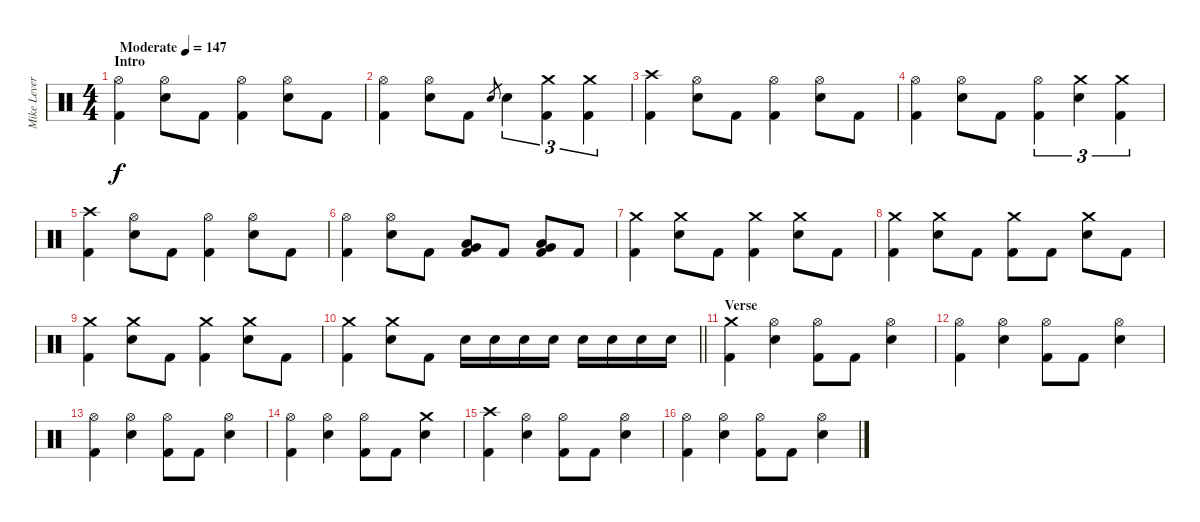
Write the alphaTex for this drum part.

\track ("Mike Leverence - Drums" "Mike Lever") {instrument percussion}
\staff {score}
\articulation defaults
\ts (4 4)
\section ("" "Intro")
\tempo (147 "Moderate")
\clef neutral
\ks c
("Hi-Hat (open)" "Kick (hit) 2").4{dy f} ("Hi-Hat (open)" "Electric Snare (hit)").8 "Kick (hit) 2".8 ("Hi-Hat (open)" "Kick (hit) 2").4 ("Hi-Hat (open)" "Electric Snare (hit)").8 "Kick (hit) 2".8 |
("Hi-Hat (open)" "Kick (hit) 2").4 ("Hi-Hat (open)" "Electric Snare (hit)").8 "Kick (hit) 2".8 "Electric Snare (hit)".8{gr} "Electric Snare (hit)".4{tu (3 2)} ("Crash medium (hit)" "Kick (hit) 2").4{tu (3 2)} ("Crash medium (hit)" "Kick (hit) 2").4{tu (3 2)} |
("Crash high (hit)" "Kick (hit) 2").4 ("Hi-Hat (open)" "Electric Snare (hit)").8 "Kick (hit) 2".8 ("Hi-Hat (open)" "Kick (hit) 2").4 ("Hi-Hat (open)" "Electric Snare (hit)").8 "Kick (hit) 2".8 |
("Hi-Hat (open)" "Kick (hit) 2").4 ("Hi-Hat (open)" "Electric Snare (hit)").8 "Kick (hit) 2".8 ("Hi-Hat (open)" "Kick (hit) 2").4{tu (3 2)} ("Crash medium (hit)" "Electric Snare (hit)").4{tu (3 2)} ("Crash medium (hit)" "Kick (hit) 2").4{tu (3 2)} |
("Crash high (hit)" "Kick (hit) 2").4 ("Hi-Hat (open)" "Electric Snare (hit)").8 "Kick (hit) 2".8 ("Hi-Hat (open)" "Kick (hit) 2").4 ("Hi-Hat (open)" "Electric Snare (hit)").8 "Kick (hit) 2".8 |
("Hi-Hat (open)" "Kick (hit) 2").4 ("Hi-Hat (open)" "Electric Snare (hit)").8 "Kick (hit) 2".8 ("Very Low Tom (hit)" "Low Tom (hit)" "Kick (hit) 2").8 "Kick (hit) 2".8 ("Very Low Tom (hit)" "Low Tom (hit)" "Kick (hit) 2").8 "Kick (hit) 2".8 |
("Crash medium (hit)" "Kick (hit) 2").4 ("Crash medium (hit)" "Electric Snare (hit)").8 "Kick (hit) 2".8 ("Crash medium (hit)" "Kick (hit) 2").4 ("Crash medium (hit)" "Electric Snare (hit)").8 "Kick (hit) 2".8 |
("Crash medium (hit)" "Kick (hit) 2").4 ("Crash medium (hit)" "Electric Snare (hit)").8 "Kick (hit) 2".8 ("Crash medium (hit)" "Kick (hit) 2").8 "Kick (hit) 2".8 ("Crash medium (hit)" "Electric Snare (hit)").8 "Kick (hit) 2".8 |
("Crash medium (hit)" "Kick (hit) 2").4 ("Crash medium (hit)" "Electric Snare (hit)").8 "Kick (hit) 2".8 ("Crash medium (hit)" "Kick (hit) 2").4 ("Crash medium (hit)" "Electric Snare (hit)").8 "Kick (hit) 2".8 |
\barLineRight lightlight
("Crash medium (hit)" "Kick (hit) 2").4 ("Crash medium (hit)" "Electric Snare (hit)").8 "Kick (hit) 2".8 "Electric Snare (hit)".16{volume 7} "Electric Snare (hit)".16{volume 12} "Electric Snare (hit)".16 "Electric Snare (hit)".16 "Electric Snare (hit)".16 "Electric Snare (hit)".16 "Electric Snare (hit)".16 "Electric Snare (hit)".16 |
\section ("" "Verse")
("Crash medium (hit)" "Kick (hit) 2").4 ("Hi-Hat (open)" "Electric Snare (hit)").4 ("Hi-Hat (open)" "Kick (hit) 2").8 "Kick (hit) 2".8 ("Hi-Hat (open)" "Electric Snare (hit)").4 |
("Hi-Hat (open)" "Kick (hit) 2").4 ("Hi-Hat (open)" "Electric Snare (hit)").4 ("Hi-Hat (open)" "Kick (hit) 2").8 "Kick (hit) 2".8 ("Hi-Hat (open)" "Electric Snare (hit)").4 |
("Hi-Hat (open)" "Kick (hit) 2").4 ("Hi-Hat (open)" "Electric Snare (hit)").4 ("Hi-Hat (open)" "Kick (hit) 2").8 "Kick (hit) 2".8 ("Hi-Hat (open)" "Electric Snare (hit)").4 |
("Hi-Hat (open)" "Kick (hit) 2").4 ("Hi-Hat (open)" "Electric Snare (hit)").4 ("Hi-Hat (open)" "Kick (hit) 2").8 "Kick (hit) 2".8 ("Crash medium (hit)" "Electric Snare (hit)").4 |
("Crash high (hit)" "Kick (hit) 2").4 ("Hi-Hat (open)" "Electric Snare (hit)").4 ("Hi-Hat (open)" "Kick (hit) 2").8 "Kick (hit) 2".8 ("Hi-Hat (open)" "Electric Snare (hit)").4 |
("Hi-Hat (open)" "Kick (hit) 2").4 ("Hi-Hat (open)" "Electric Snare (hit)").4 ("Hi-Hat (open)" "Kick (hit) 2").8 "Kick (hit) 2".8 ("Hi-Hat (open)" "Electric Snare (hit)").4
